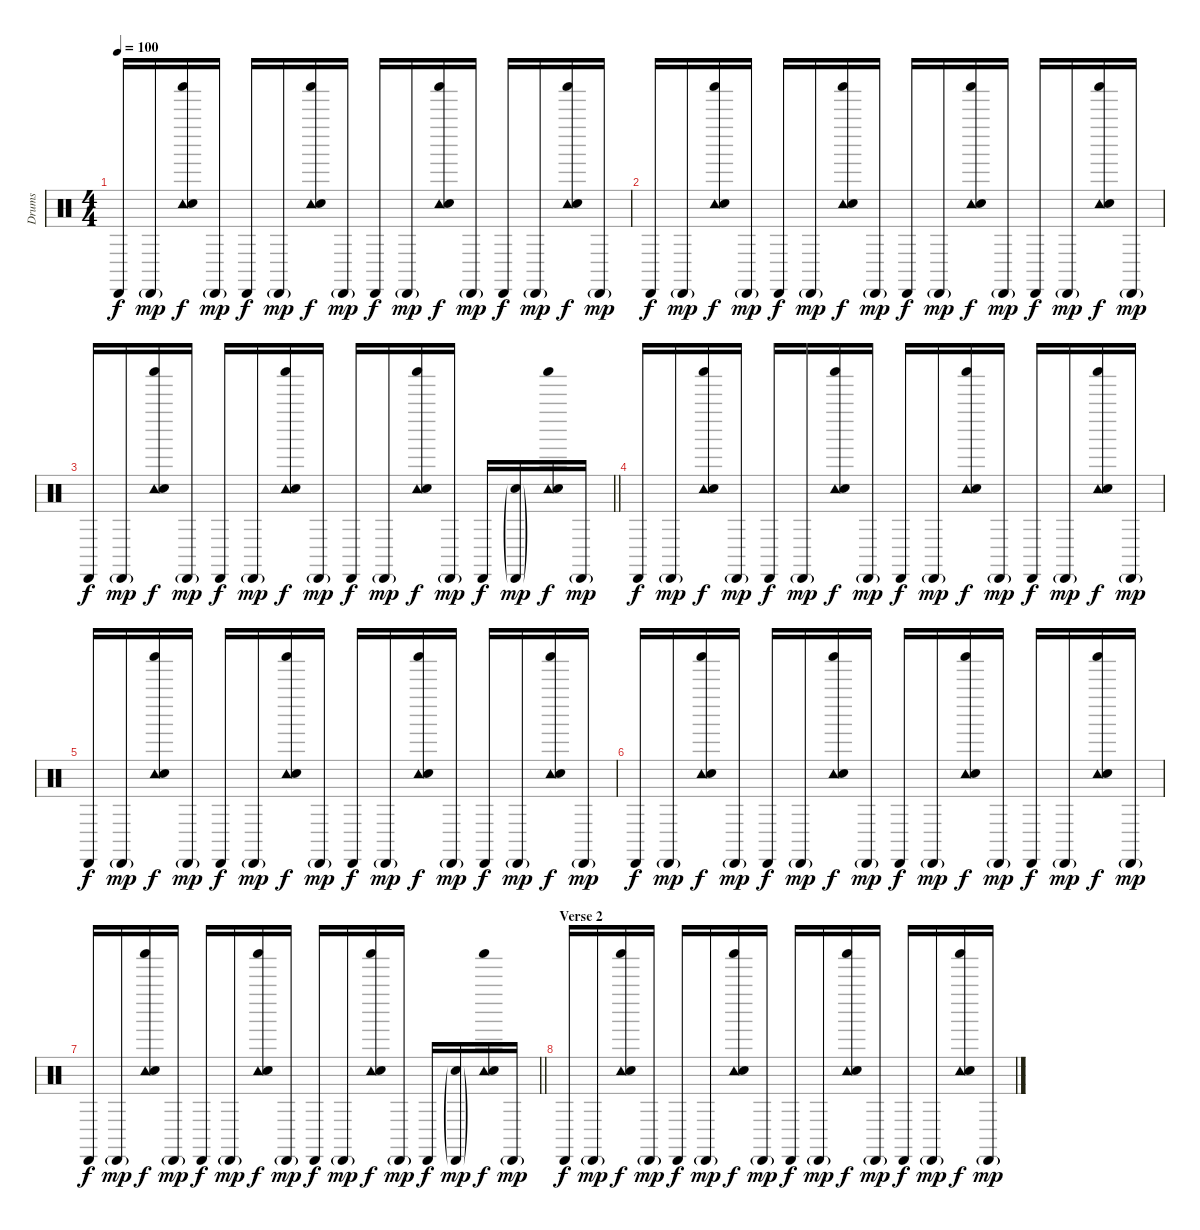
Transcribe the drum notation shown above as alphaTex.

\track ("Drums" "Drums") {instrument percussion}
\staff {score}
\articulation defaults
\ts (4 4)
\tempo 100
\clef neutral
\ks c "Cabasa (hit)".16{dy f} "Cabasa (hit)"{g}.16{dy mp}
("Tambourine (hit)" "Shaker (hit)" "Electric Snare (hit)").16{dy f} "Cabasa (hit)"{g}.16{dy mp} "Cabasa (hit)".16{dy f} "Cabasa (hit)"{g}.16{dy mp} ("Tambourine (hit)" "Shaker (hit)" "Electric Snare (hit)").16{dy f} "Cabasa (hit)"{g}.16{dy mp} "Cabasa (hit)".16{dy f} "Cabasa (hit)"{g}.16{dy mp} ("Tambourine (hit)" "Shaker (hit)" "Electric Snare (hit)").16{dy f} "Cabasa (hit)"{g}.16{dy mp} "Cabasa (hit)".16{dy f} "Cabasa (hit)"{g}.16{dy mp} ("Tambourine (hit)" "Shaker (hit)" "Electric Snare (hit)").16{dy f} "Cabasa (hit)"{g}.16{dy mp} |
"Cabasa (hit)".16{dy f} "Cabasa (hit)"{g}.16{dy mp} ("Tambourine (hit)" "Shaker (hit)" "Electric Snare (hit)").16{dy f} "Cabasa (hit)"{g}.16{dy mp} "Cabasa (hit)".16{dy f} "Cabasa (hit)"{g}.16{dy mp} ("Tambourine (hit)" "Shaker (hit)" "Electric Snare (hit)").16{dy f} "Cabasa (hit)"{g}.16{dy mp} "Cabasa (hit)".16{dy f} "Cabasa (hit)"{g}.16{dy mp} ("Tambourine (hit)" "Shaker (hit)" "Electric Snare (hit)").16{dy f} "Cabasa (hit)"{g}.16{dy mp} "Cabasa (hit)".16{dy f} "Cabasa (hit)"{g}.16{dy mp} ("Tambourine (hit)" "Shaker (hit)" "Electric Snare (hit)").16{dy f} "Cabasa (hit)"{g}.16{dy mp} |
\barLineRight lightlight "Cabasa (hit)".16{dy f} "Cabasa (hit)"{g}.16{dy mp}
("Tambourine (hit)" "Shaker (hit)" "Electric Snare (hit)").16{dy f} "Cabasa (hit)"{g}.16{dy mp} "Cabasa (hit)".16{dy f} "Cabasa (hit)"{g}.16{dy mp} ("Tambourine (hit)" "Shaker (hit)" "Electric Snare (hit)").16{dy f} "Cabasa (hit)"{g}.16{dy mp} "Cabasa (hit)".16{dy f} "Cabasa (hit)"{g}.16{dy mp} ("Tambourine (hit)" "Shaker (hit)" "Electric Snare (hit)").16{dy f} "Cabasa (hit)"{g}.16{dy mp} "Cabasa (hit)".16{dy f} ("Cabasa (hit)"{g} "Electric Snare (hit)"{g}).16{dy mp} ("Tambourine (hit)" "Shaker (hit)" "Electric Snare (hit)").16{dy f} "Cabasa (hit)"{g}.16{dy mp} |
"Cabasa (hit)".16{dy f} "Cabasa (hit)"{g}.16{dy mp} ("Tambourine (hit)" "Shaker (hit)" "Electric Snare (hit)").16{dy f} "Cabasa (hit)"{g}.16{dy mp} "Cabasa (hit)".16{dy f} "Cabasa (hit)"{g}.16{dy mp} ("Tambourine (hit)" "Shaker (hit)" "Electric Snare (hit)").16{dy f} "Cabasa (hit)"{g}.16{dy mp} "Cabasa (hit)".16{dy f} "Cabasa (hit)"{g}.16{dy mp} ("Tambourine (hit)" "Shaker (hit)" "Electric Snare (hit)").16{dy f} "Cabasa (hit)"{g}.16{dy mp} "Cabasa (hit)".16{dy f} "Cabasa (hit)"{g}.16{dy mp} ("Tambourine (hit)" "Shaker (hit)" "Electric Snare (hit)").16{dy f} "Cabasa (hit)"{g}.16{dy mp} |
"Cabasa (hit)".16{dy f} "Cabasa (hit)"{g}.16{dy mp} ("Tambourine (hit)" "Shaker (hit)" "Electric Snare (hit)").16{dy f} "Cabasa (hit)"{g}.16{dy mp} "Cabasa (hit)".16{dy f} "Cabasa (hit)"{g}.16{dy mp} ("Tambourine (hit)" "Shaker (hit)" "Electric Snare (hit)").16{dy f} "Cabasa (hit)"{g}.16{dy mp} "Cabasa (hit)".16{dy f} "Cabasa (hit)"{g}.16{dy mp} ("Tambourine (hit)" "Shaker (hit)" "Electric Snare (hit)").16{dy f} "Cabasa (hit)"{g}.16{dy mp} "Cabasa (hit)".16{dy f} "Cabasa (hit)"{g}.16{dy mp} ("Tambourine (hit)" "Shaker (hit)" "Electric Snare (hit)").16{dy f} "Cabasa (hit)"{g}.16{dy mp} |
"Cabasa (hit)".16{dy f} "Cabasa (hit)"{g}.16{dy mp} ("Tambourine (hit)" "Shaker (hit)" "Electric Snare (hit)").16{dy f} "Cabasa (hit)"{g}.16{dy mp} "Cabasa (hit)".16{dy f} "Cabasa (hit)"{g}.16{dy mp} ("Tambourine (hit)" "Shaker (hit)" "Electric Snare (hit)").16{dy f} "Cabasa (hit)"{g}.16{dy mp} "Cabasa (hit)".16{dy f} "Cabasa (hit)"{g}.16{dy mp} ("Tambourine (hit)" "Shaker (hit)" "Electric Snare (hit)").16{dy f} "Cabasa (hit)"{g}.16{dy mp} "Cabasa (hit)".16{dy f} "Cabasa (hit)"{g}.16{dy mp} ("Tambourine (hit)" "Shaker (hit)" "Electric Snare (hit)").16{dy f} "Cabasa (hit)"{g}.16{dy mp} |
\barLineRight lightlight "Cabasa (hit)".16{dy f} "Cabasa (hit)"{g}.16{dy mp}
("Tambourine (hit)" "Shaker (hit)" "Electric Snare (hit)").16{dy f} "Cabasa (hit)"{g}.16{dy mp} "Cabasa (hit)".16{dy f} "Cabasa (hit)"{g}.16{dy mp} ("Tambourine (hit)" "Shaker (hit)" "Electric Snare (hit)").16{dy f} "Cabasa (hit)"{g}.16{dy mp} "Cabasa (hit)".16{dy f} "Cabasa (hit)"{g}.16{dy mp} ("Tambourine (hit)" "Shaker (hit)" "Electric Snare (hit)").16{dy f} "Cabasa (hit)"{g}.16{dy mp} "Cabasa (hit)".16{dy f} ("Cabasa (hit)"{g} "Electric Snare (hit)"{g}).16{dy mp} ("Tambourine (hit)" "Shaker (hit)" "Electric Snare (hit)").16{dy f} "Cabasa (hit)"{g}.16{dy mp} |
\section ("" "Verse 2")
"Cabasa (hit)".16{dy f} "Cabasa (hit)"{g}.16{dy mp} ("Tambourine (hit)" "Shaker (hit)" "Electric Snare (hit)").16{dy f} "Cabasa (hit)"{g}.16{dy mp} "Cabasa (hit)".16{dy f} "Cabasa (hit)"{g}.16{dy mp} ("Tambourine (hit)" "Shaker (hit)" "Electric Snare (hit)").16{dy f} "Cabasa (hit)"{g}.16{dy mp} "Cabasa (hit)".16{dy f} "Cabasa (hit)"{g}.16{dy mp} ("Tambourine (hit)" "Shaker (hit)" "Electric Snare (hit)").16{dy f} "Cabasa (hit)"{g}.16{dy mp} "Cabasa (hit)".16{dy f} "Cabasa (hit)"{g}.16{dy mp} ("Tambourine (hit)" "Shaker (hit)" "Electric Snare (hit)").16{dy f} "Cabasa (hit)"{g}.16{dy mp}
